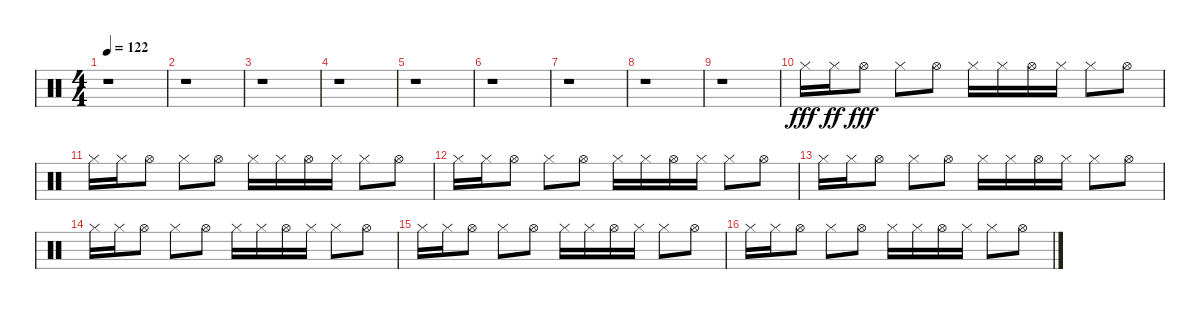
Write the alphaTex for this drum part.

\track "" {mute instrument percussion}
\staff {score}
\articulation defaults
\ts (4 4)
\tempo 122
\clef neutral
\ks c
r.1{dy fff} |
r.1 |
r.1 |
r.1 |
r.1 |
r.1 |
r.1 |
r.1 |
r.1 |
"Hi-Hat (closed)".16 "Hi-Hat (closed)".16{dy ff} "Hi-Hat (open)".8{dy fff} "Hi-Hat (closed)".8 "Hi-Hat (open)".8 "Hi-Hat (closed)".16 "Hi-Hat (closed)".16 "Hi-Hat (open)".16 "Hi-Hat (closed)".16 "Hi-Hat (closed)".8 "Hi-Hat (open)".8 |
"Hi-Hat (closed)".16 "Hi-Hat (closed)".16 "Hi-Hat (open)".8 "Hi-Hat (closed)".8 "Hi-Hat (open)".8 "Hi-Hat (closed)".16 "Hi-Hat (closed)".16 "Hi-Hat (open)".16 "Hi-Hat (closed)".16 "Hi-Hat (closed)".8 "Hi-Hat (open)".8 |
"Hi-Hat (closed)".16 "Hi-Hat (closed)".16 "Hi-Hat (open)".8 "Hi-Hat (closed)".8 "Hi-Hat (open)".8 "Hi-Hat (closed)".16 "Hi-Hat (closed)".16 "Hi-Hat (open)".16 "Hi-Hat (closed)".16 "Hi-Hat (closed)".8 "Hi-Hat (open)".8 |
"Hi-Hat (closed)".16 "Hi-Hat (closed)".16 "Hi-Hat (open)".8 "Hi-Hat (closed)".8 "Hi-Hat (open)".8 "Hi-Hat (closed)".16 "Hi-Hat (closed)".16 "Hi-Hat (open)".16 "Hi-Hat (closed)".16 "Hi-Hat (closed)".8 "Hi-Hat (open)".8 |
"Hi-Hat (closed)".16 "Hi-Hat (closed)".16 "Hi-Hat (open)".8 "Hi-Hat (closed)".8 "Hi-Hat (open)".8 "Hi-Hat (closed)".16 "Hi-Hat (closed)".16 "Hi-Hat (open)".16 "Hi-Hat (closed)".16 "Hi-Hat (closed)".8 "Hi-Hat (open)".8 |
"Hi-Hat (closed)".16 "Hi-Hat (closed)".16 "Hi-Hat (open)".8 "Hi-Hat (closed)".8 "Hi-Hat (open)".8 "Hi-Hat (closed)".16 "Hi-Hat (closed)".16 "Hi-Hat (open)".16 "Hi-Hat (closed)".16 "Hi-Hat (closed)".8 "Hi-Hat (open)".8 |
"Hi-Hat (closed)".16 "Hi-Hat (closed)".16 "Hi-Hat (open)".8 "Hi-Hat (closed)".8 "Hi-Hat (open)".8 "Hi-Hat (closed)".16 "Hi-Hat (closed)".16 "Hi-Hat (open)".16 "Hi-Hat (closed)".16 "Hi-Hat (closed)".8 "Hi-Hat (open)".8
